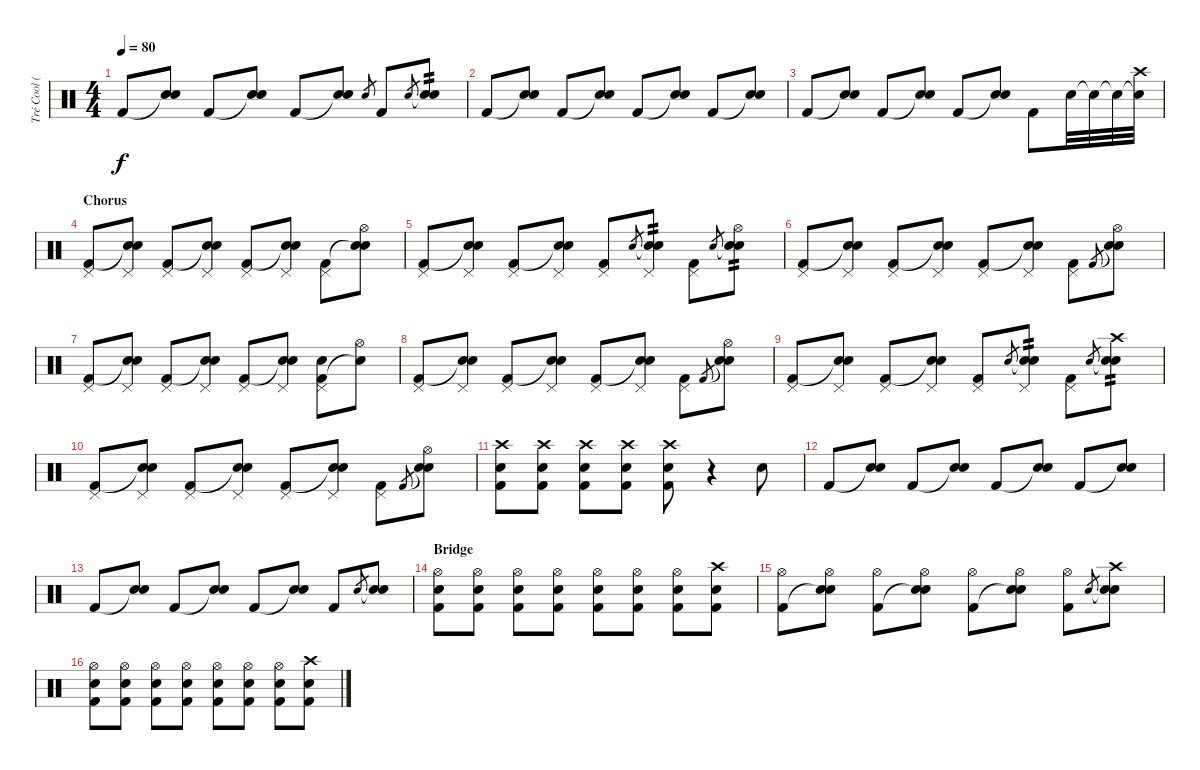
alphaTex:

\track ("Tré Cool (Drums)" "Tré Cool (") {instrument percussion}
\staff {score}
\articulation defaults
\ts (4 4)
\tempo 80
\clef neutral
\ks c "Kick (hit) 2".8{dy f}
("Snare (hit)"{t} "Electric Snare (hit)").8 "Kick (hit) 2".8 ("Snare (hit)"{t} "Electric Snare (hit)").8 "Kick (hit) 2".8 ("Snare (hit)"{t} "Electric Snare (hit)").8 "Electric Snare (hit)".8{gr} "Kick (hit) 2".8 "Electric Snare (hit)".8{gr} ("Snare (hit)"{t} "Electric Snare (hit)").8{tp 2} |
"Kick (hit) 2".8 ("Snare (hit)"{t} "Electric Snare (hit)").8 "Kick (hit) 2".8 ("Snare (hit)"{t} "Electric Snare (hit)").8 "Kick (hit) 2".8 ("Snare (hit)"{t} "Electric Snare (hit)").8 "Kick (hit) 2".8 ("Snare (hit)"{t} "Electric Snare (hit)").8 |
"Kick (hit) 2".8 ("Snare (hit)"{t} "Electric Snare (hit)").8 "Kick (hit) 2".8 ("Snare (hit)"{t} "Electric Snare (hit)").8 "Kick (hit) 2".8 ("Snare (hit)"{t} "Electric Snare (hit)").8 "Kick (hit) 2".8 "Electric Snare (hit)"{tr (38 64)}.32 "Snare (hit)"{t}.32 "Snare (hit)"{t}.32 ("Snare (hit)"{t} "Crash high (hit)").32 |
\section ("" "Chorus")
("Kick (hit) 2" "Pedal Hi-Hat (hit)").8 ("Snare (hit)"{t} "Electric Snare (hit)" "Pedal Hi-Hat (hit)").8 ("Kick (hit) 2" "Pedal Hi-Hat (hit)").8 ("Snare (hit)"{t} "Electric Snare (hit)" "Pedal Hi-Hat (hit)").8 ("Kick (hit) 2" "Pedal Hi-Hat (hit)").8 ("Snare (hit)"{t} "Electric Snare (hit)" "Pedal Hi-Hat (hit)").8 ("Kick (hit) 2" "Pedal Hi-Hat (hit)").8 ("Snare (hit)"{t} "Electric Snare (hit)" "Hi-Hat (open)").8 |
("Kick (hit) 2" "Pedal Hi-Hat (hit)").8 ("Snare (hit)"{t} "Electric Snare (hit)" "Pedal Hi-Hat (hit)").8 ("Kick (hit) 2" "Pedal Hi-Hat (hit)").8 ("Snare (hit)"{t} "Electric Snare (hit)" "Pedal Hi-Hat (hit)").8 ("Kick (hit) 2"{tr (36 16)} "Pedal Hi-Hat (hit)").8 "Electric Snare (hit)".8{gr} ("Snare (hit)"{t} "Electric Snare (hit)" "Pedal Hi-Hat (hit)").8{tp 2} ("Kick (hit) 2"{tr (36 16)} "Pedal Hi-Hat (hit)").8 "Electric Snare (hit)".8{gr} ("Snare (hit)"{t} "Electric Snare (hit)" "Hi-Hat (open)").8{tp 2} |
("Kick (hit) 2" "Pedal Hi-Hat (hit)").8 ("Snare (hit)"{t} "Electric Snare (hit)" "Pedal Hi-Hat (hit)").8 ("Kick (hit) 2" "Pedal Hi-Hat (hit)").8 ("Snare (hit)"{t} "Electric Snare (hit)" "Pedal Hi-Hat (hit)").8 ("Kick (hit) 2" "Pedal Hi-Hat (hit)").8 ("Snare (hit)"{t} "Electric Snare (hit)" "Pedal Hi-Hat (hit)").8 ("Kick (hit) 2" "Pedal Hi-Hat (hit)").8 "Kick (hit) 2".8{gr} ("Snare (hit)"{t} "Electric Snare (hit)" "Hi-Hat (open)").8 |
("Kick (hit) 2" "Pedal Hi-Hat (hit)").8 ("Snare (hit)"{t} "Electric Snare (hit)" "Pedal Hi-Hat (hit)").8 ("Kick (hit) 2" "Pedal Hi-Hat (hit)").8 ("Snare (hit)"{t} "Electric Snare (hit)" "Pedal Hi-Hat (hit)").8 ("Kick (hit) 2" "Pedal Hi-Hat (hit)").8 ("Snare (hit)"{t} "Electric Snare (hit)" "Pedal Hi-Hat (hit)").8 ("Kick (hit) 2" "Electric Snare (hit)"{tr (38 64)} "Pedal Hi-Hat (hit)").8 ("Electric Snare (hit)"{t} "Hi-Hat (open)").8 |
("Kick (hit) 2" "Pedal Hi-Hat (hit)").8 ("Snare (hit)"{t} "Electric Snare (hit)" "Pedal Hi-Hat (hit)").8 ("Kick (hit) 2" "Pedal Hi-Hat (hit)").8 ("Snare (hit)"{t} "Electric Snare (hit)" "Pedal Hi-Hat (hit)").8 ("Kick (hit) 2" "Pedal Hi-Hat (hit)").8 ("Snare (hit)"{t} "Electric Snare (hit)" "Pedal Hi-Hat (hit)").8 ("Kick (hit) 2" "Pedal Hi-Hat (hit)").8 "Kick (hit) 2".8{gr} ("Snare (hit)"{t} "Electric Snare (hit)" "Hi-Hat (open)").8 |
("Kick (hit) 2" "Pedal Hi-Hat (hit)").8 ("Snare (hit)"{t} "Electric Snare (hit)" "Pedal Hi-Hat (hit)").8 ("Kick (hit) 2" "Pedal Hi-Hat (hit)").8 ("Snare (hit)"{t} "Electric Snare (hit)" "Pedal Hi-Hat (hit)").8 ("Kick (hit) 2"{tr (36 16)} "Pedal Hi-Hat (hit)").8 "Electric Snare (hit)".8{gr} ("Snare (hit)"{t} "Electric Snare (hit)" "Pedal Hi-Hat (hit)").8{tp 2} ("Kick (hit) 2"{tr (36 16)} "Pedal Hi-Hat (hit)").8 "Electric Snare (hit)".8{gr} ("Snare (hit)"{t} "Electric Snare (hit)" "Crash high (hit)").8{tp 2} |
("Kick (hit) 2" "Pedal Hi-Hat (hit)").8 ("Snare (hit)"{t} "Electric Snare (hit)" "Pedal Hi-Hat (hit)").8 ("Kick (hit) 2" "Pedal Hi-Hat (hit)").8 ("Snare (hit)"{t} "Electric Snare (hit)" "Pedal Hi-Hat (hit)").8 ("Kick (hit) 2" "Pedal Hi-Hat (hit)").8 ("Snare (hit)"{t} "Electric Snare (hit)" "Pedal Hi-Hat (hit)").8 ("Kick (hit) 2" "Pedal Hi-Hat (hit)").8 "Kick (hit) 2".8{gr} ("Snare (hit)"{t} "Electric Snare (hit)" "Hi-Hat (open)").8 |
("Electric Snare (hit)" "Kick (hit) 2" "Crash high (hit)").8 ("Electric Snare (hit)" "Kick (hit) 2" "Crash high (hit)").8 ("Electric Snare (hit)" "Kick (hit) 2" "Crash high (hit)").8 ("Electric Snare (hit)" "Kick (hit) 2" "Crash high (hit)").8 ("Electric Snare (hit)" "Kick (hit) 2" "Crash high (hit)").8 r.4 "Electric Snare (hit)"{tr (38 64)}.8 |
"Kick (hit) 2".8 ("Snare (hit)"{t} "Electric Snare (hit)").8 "Kick (hit) 2".8 ("Snare (hit)"{t} "Electric Snare (hit)").8 "Kick (hit) 2".8 ("Snare (hit)"{t} "Electric Snare (hit)").8 "Kick (hit) 2".8 ("Snare (hit)"{t} "Electric Snare (hit)").8 |
"Kick (hit) 2".8 ("Snare (hit)"{t} "Electric Snare (hit)").8 "Kick (hit) 2".8 ("Snare (hit)"{t} "Electric Snare (hit)").8 "Kick (hit) 2".8 ("Snare (hit)"{t} "Electric Snare (hit)").8 "Kick (hit) 2".8 "Electric Snare (hit)".8{gr} ("Snare (hit)"{t} "Electric Snare (hit)"{tr (40 16)}).8 |
\section ("" "Bridge")
("Kick (hit) 2" "Electric Snare (hit)" "Hi-Hat (open)").8 ("Kick (hit) 2" "Electric Snare (hit)" "Hi-Hat (open)").8 ("Kick (hit) 2" "Electric Snare (hit)" "Hi-Hat (open)").8 ("Kick (hit) 2" "Electric Snare (hit)" "Hi-Hat (open)").8 ("Kick (hit) 2" "Electric Snare (hit)" "Hi-Hat (open)").8 ("Kick (hit) 2" "Electric Snare (hit)" "Hi-Hat (open)").8 ("Kick (hit) 2" "Electric Snare (hit)" "Hi-Hat (open)").8 ("Kick (hit) 2" "Electric Snare (hit)" "Crash high (hit)").8 |
("Kick (hit) 2" "Hi-Hat (open)").8 ("Snare (hit)"{t} "Electric Snare (hit)" "Hi-Hat (open)").8 ("Kick (hit) 2" "Hi-Hat (open)").8 ("Snare (hit)"{t} "Electric Snare (hit)" "Hi-Hat (open)").8 ("Kick (hit) 2" "Hi-Hat (open)").8 ("Snare (hit)"{t} "Electric Snare (hit)" "Hi-Hat (open)").8 ("Kick (hit) 2" "Hi-Hat (open)").8 "Electric Snare (hit)".8{gr} ("Snare (hit)"{t} "Electric Snare (hit)"{tr (40 16)} "Crash high (hit)").8 |
("Kick (hit) 2" "Electric Snare (hit)" "Hi-Hat (open)").8 ("Kick (hit) 2" "Electric Snare (hit)" "Hi-Hat (open)").8 ("Kick (hit) 2" "Electric Snare (hit)" "Hi-Hat (open)").8 ("Kick (hit) 2" "Electric Snare (hit)" "Hi-Hat (open)").8 ("Kick (hit) 2" "Electric Snare (hit)" "Hi-Hat (open)").8 ("Kick (hit) 2" "Electric Snare (hit)" "Hi-Hat (open)").8 ("Kick (hit) 2" "Electric Snare (hit)" "Hi-Hat (open)").8 ("Kick (hit) 2" "Electric Snare (hit)" "Crash high (hit)").8
